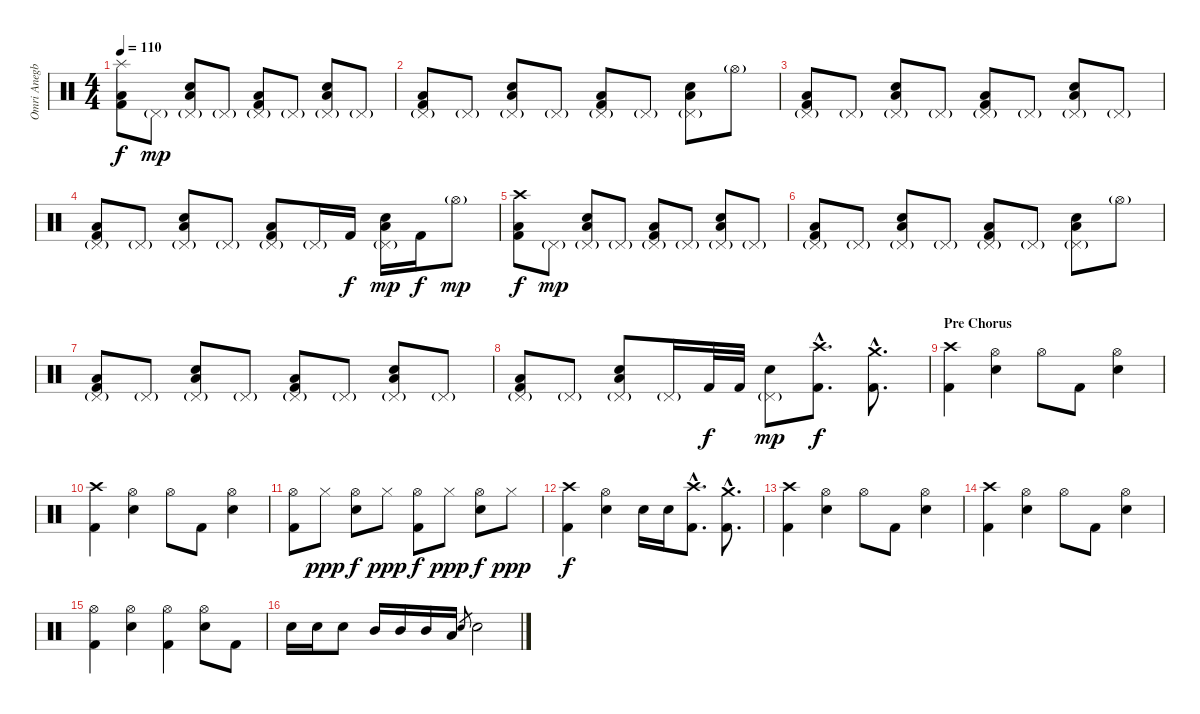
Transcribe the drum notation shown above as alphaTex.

\track ("Omri Anegbi" "Omri Anegb") {instrument percussion}
\staff {score}
\articulation defaults
\ts (4 4)
\tempo 110
\clef neutral
\ks c
("Splash (hit)" "Low Floor Tom (hit)" "Kick (hit) 2").8{dy f} "Pedal Hi-Hat (hit)"{g}.8{dy mp} ("Pedal Hi-Hat (hit)"{g} "Snare (hit) 2" "Low Floor Tom (hit)").8 "Pedal Hi-Hat (hit)"{g}.8 ("Pedal Hi-Hat (hit)"{g} "Low Floor Tom (hit)" "Kick (hit) 2").8 "Pedal Hi-Hat (hit)"{g}.8 ("Pedal Hi-Hat (hit)"{g} "Snare (hit) 2" "Low Floor Tom (hit)").8 "Pedal Hi-Hat (hit)"{g}.8 |
("Pedal Hi-Hat (hit)"{g} "Low Floor Tom (hit)" "Kick (hit) 2").8 "Pedal Hi-Hat (hit)"{g}.8 ("Pedal Hi-Hat (hit)"{g} "Snare (hit) 2" "Low Floor Tom (hit)").8 "Pedal Hi-Hat (hit)"{g}.8 ("Pedal Hi-Hat (hit)"{g} "Low Floor Tom (hit)" "Kick (hit) 2").8 "Pedal Hi-Hat (hit)"{g}.8 ("Pedal Hi-Hat (hit)"{g} "Snare (hit) 2" "Low Floor Tom (hit)").8 "Hi-Hat (open)"{g}.8 |
("Pedal Hi-Hat (hit)"{g} "Low Floor Tom (hit)" "Kick (hit) 2").8 "Pedal Hi-Hat (hit)"{g}.8 ("Pedal Hi-Hat (hit)"{g} "Snare (hit) 2" "Low Floor Tom (hit)").8 "Pedal Hi-Hat (hit)"{g}.8 ("Pedal Hi-Hat (hit)"{g} "Low Floor Tom (hit)" "Kick (hit) 2").8 "Pedal Hi-Hat (hit)"{g}.8 ("Pedal Hi-Hat (hit)"{g} "Snare (hit) 2" "Low Floor Tom (hit)").8 "Pedal Hi-Hat (hit)"{g}.8 |
("Pedal Hi-Hat (hit)"{g} "Low Floor Tom (hit)" "Kick (hit) 2").8 "Pedal Hi-Hat (hit)"{g}.8 ("Pedal Hi-Hat (hit)"{g} "Snare (hit) 2" "Low Floor Tom (hit)").8 "Pedal Hi-Hat (hit)"{g}.8 ("Pedal Hi-Hat (hit)"{g} "Low Floor Tom (hit)" "Kick (hit) 2").8 "Pedal Hi-Hat (hit)"{g}.16 "Kick (hit) 2".16{dy f} ("Pedal Hi-Hat (hit)"{g} "Snare (hit) 2" "Low Floor Tom (hit)").16{dy mp} "Kick (hit) 2".16{dy f} "Hi-Hat (open)"{g}.8{dy mp} |
("Crash high (hit)" "Low Floor Tom (hit)" "Kick (hit) 2").8{dy f} "Pedal Hi-Hat (hit)"{g}.8{dy mp} ("Pedal Hi-Hat (hit)"{g} "Snare (hit) 2" "Low Floor Tom (hit)").8 "Pedal Hi-Hat (hit)"{g}.8 ("Pedal Hi-Hat (hit)"{g} "Low Floor Tom (hit)" "Kick (hit) 2").8 "Pedal Hi-Hat (hit)"{g}.8 ("Pedal Hi-Hat (hit)"{g} "Snare (hit) 2" "Low Floor Tom (hit)").8 "Pedal Hi-Hat (hit)"{g}.8 |
("Pedal Hi-Hat (hit)"{g} "Low Floor Tom (hit)" "Kick (hit) 2").8 "Pedal Hi-Hat (hit)"{g}.8 ("Pedal Hi-Hat (hit)"{g} "Snare (hit) 2" "Low Floor Tom (hit)").8 "Pedal Hi-Hat (hit)"{g}.8 ("Pedal Hi-Hat (hit)"{g} "Low Floor Tom (hit)" "Kick (hit) 2").8 "Pedal Hi-Hat (hit)"{g}.8 ("Pedal Hi-Hat (hit)"{g} "Snare (hit) 2" "Low Floor Tom (hit)").8 "Hi-Hat (open)"{g}.8 |
("Pedal Hi-Hat (hit)"{g} "Low Floor Tom (hit)" "Kick (hit) 2").8 "Pedal Hi-Hat (hit)"{g}.8 ("Pedal Hi-Hat (hit)"{g} "Snare (hit) 2" "Low Floor Tom (hit)").8 "Pedal Hi-Hat (hit)"{g}.8 ("Pedal Hi-Hat (hit)"{g} "Low Floor Tom (hit)" "Kick (hit) 2").8 "Pedal Hi-Hat (hit)"{g}.8 ("Pedal Hi-Hat (hit)"{g} "Snare (hit) 2" "Low Floor Tom (hit)").8 "Pedal Hi-Hat (hit)"{g}.8 |
("Pedal Hi-Hat (hit)"{g} "Low Floor Tom (hit)" "Kick (hit) 2").8 "Pedal Hi-Hat (hit)"{g}.8 ("Pedal Hi-Hat (hit)"{g} "Snare (hit) 2" "Low Floor Tom (hit)").8 "Pedal Hi-Hat (hit)"{g}.16 "Kick (hit) 2".32{dy f} "Kick (hit) 2".32 ("Pedal Hi-Hat (hit)"{g} "Snare (hit) 2").8{dy mp} ("Crash high (hit)"{hac} "Kick (hit) 2"{hac}).8{d dy f} ("Crash medium (hit)"{hac} "Kick (hit) 2"{hac}).8{d} |
\section ("" "Pre Chorus")
("Crash high (hit)" "Kick (hit) 2").4 ("Hi-Hat (open)" "Snare (hit) 2").4 "Hi-Hat (open)".8 "Kick (hit) 2".8 ("Hi-Hat (open)" "Snare (hit) 2").4 |
("Crash high (hit)" "Kick (hit) 2").4 ("Hi-Hat (open)" "Snare (hit) 2").4 "Hi-Hat (open)".8 "Kick (hit) 2".8 ("Hi-Hat (open)" "Snare (hit) 2").4 |
("Hi-Hat (open)" "Kick (hit) 2").8 "Hi-Hat (closed)".8{dy ppp} ("Hi-Hat (open)" "Snare (hit) 2").8{dy f} "Hi-Hat (closed)".8{dy ppp} ("Hi-Hat (open)" "Kick (hit) 2").8{dy f} "Hi-Hat (closed)".8{dy ppp} ("Hi-Hat (open)" "Snare (hit) 2").8{dy f} "Hi-Hat (closed)".8{dy ppp} |
("Crash high (hit)" "Kick (hit) 2").4{dy f} ("Hi-Hat (open)" "Snare (hit) 2").4 "Snare (hit) 2".16 "Snare (hit) 2".16 ("Crash high (hit)"{hac} "Kick (hit) 2"{hac}).8{d} ("Crash medium (hit)"{hac} "Kick (hit) 2"{hac}).8{d} |
("Crash high (hit)" "Kick (hit) 2").4 ("Hi-Hat (open)" "Snare (hit) 2").4 "Hi-Hat (open)".8 "Kick (hit) 2".8 ("Hi-Hat (open)" "Snare (hit) 2").4 |
("Crash high (hit)" "Kick (hit) 2").4 ("Hi-Hat (open)" "Snare (hit) 2").4 "Hi-Hat (open)".8 "Kick (hit) 2".8 ("Hi-Hat (open)" "Snare (hit) 2").4 |
("Hi-Hat (open)" "Kick (hit) 2").4 ("Hi-Hat (open)" "Snare (hit) 2").4 ("Hi-Hat (open)" "Kick (hit) 2").4 ("Hi-Hat (open)" "Snare (hit) 2").8 "Kick (hit) 2".8 |
"Snare (hit) 2".16 "Snare (hit) 2".16 "Snare (hit) 2".8 "Mid Tom (hit)".16 "Mid Tom (hit)".16 "Mid Tom (hit)".16 "Low Tom (hit)".16 "Snare (hit) 2".8{gr} "Snare (hit) 2".2
